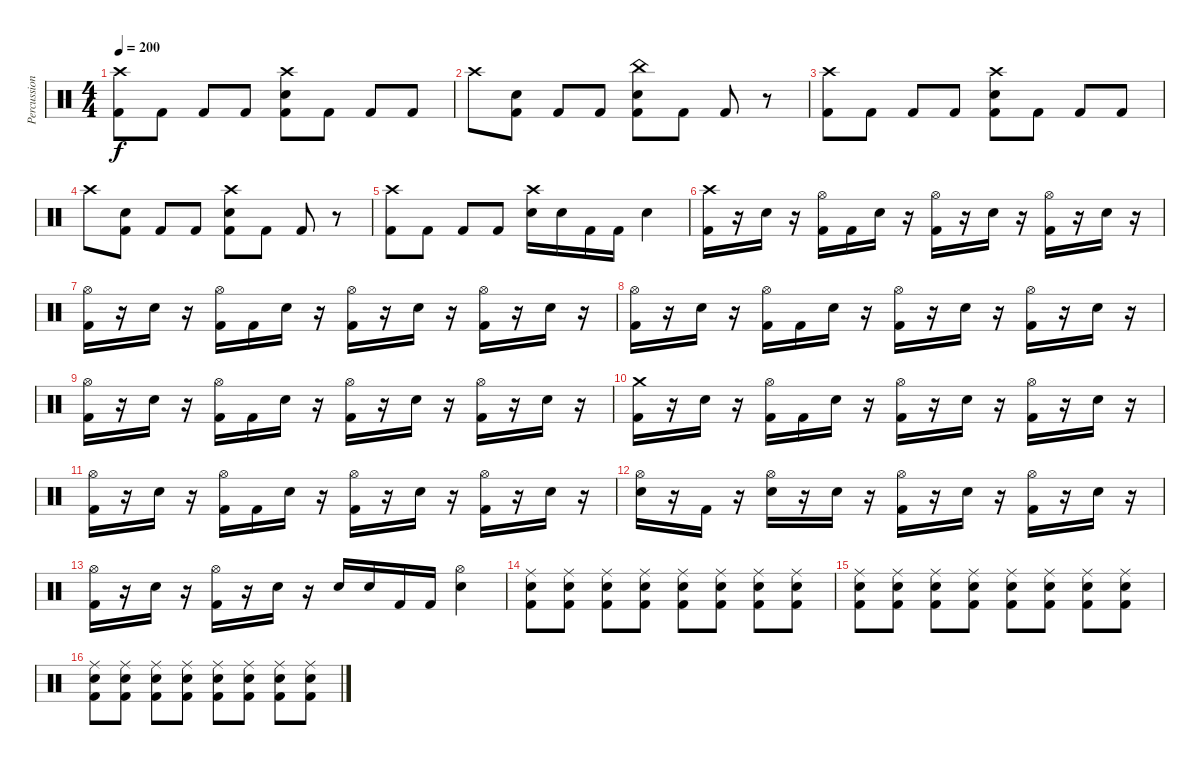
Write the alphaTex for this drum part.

\track ("Percussion" "Percussion") {instrument percussion}
\staff {score}
\articulation defaults
\ts (4 4)
\tempo 200
\clef neutral
\ks c
("Crash high (hit)" "Kick (hit) 2").8{dy f} "Kick (hit) 2".8 "Kick (hit) 2".8 "Kick (hit) 2".8 ("Crash high (hit)" "Electric Snare (hit)" "Kick (hit) 2").8 "Kick (hit) 2".8 "Kick (hit) 2".8 "Kick (hit) 2".8 |
"Crash high (hit)".8 ("Electric Snare (hit)" "Kick (hit) 2").8 "Kick (hit) 2".8 "Kick (hit) 2".8 ("China (hit)" "Electric Snare (hit)" "Kick (hit) 2").8 "Kick (hit) 2".8 "Kick (hit) 2".8 r.8 |
("Crash high (hit)" "Kick (hit) 2").8 "Kick (hit) 2".8 "Kick (hit) 2".8 "Kick (hit) 2".8 ("Crash high (hit)" "Electric Snare (hit)" "Kick (hit) 2").8 "Kick (hit) 2".8 "Kick (hit) 2".8 "Kick (hit) 2".8 |
"Crash high (hit)".8 ("Electric Snare (hit)" "Kick (hit) 2").8 "Kick (hit) 2".8 "Kick (hit) 2".8 ("Crash high (hit)" "Electric Snare (hit)" "Kick (hit) 2").8 "Kick (hit) 2".8 "Kick (hit) 2".8 r.8 |
("Crash high (hit)" "Kick (hit) 2").8 "Kick (hit) 2".8 "Kick (hit) 2".8 "Kick (hit) 2".8 ("Crash high (hit)" "Electric Snare (hit)").16 "Electric Snare (hit)".16 "Kick (hit) 2".16 "Kick (hit) 2".16 "Electric Snare (hit)".4 |
("Crash high (hit)" "Kick (hit) 2").16 r.16 "Electric Snare (hit)".16 r.16 ("Hi-Hat (open)" "Kick (hit) 2").16 "Kick (hit) 2".16 "Electric Snare (hit)".16 r.16 ("Hi-Hat (open)" "Kick (hit) 2").16 r.16 "Electric Snare (hit)".16 r.16 ("Hi-Hat (open)" "Kick (hit) 2").16 r.16 "Electric Snare (hit)".16 r.16 |
("Hi-Hat (open)" "Kick (hit) 2").16 r.16 "Electric Snare (hit)".16 r.16 ("Hi-Hat (open)" "Kick (hit) 2").16 "Kick (hit) 2".16 "Electric Snare (hit)".16 r.16 ("Hi-Hat (open)" "Kick (hit) 2").16 r.16 "Electric Snare (hit)".16 r.16 ("Hi-Hat (open)" "Kick (hit) 2").16 r.16 "Electric Snare (hit)".16 r.16 |
("Hi-Hat (open)" "Kick (hit) 2").16 r.16 "Electric Snare (hit)".16 r.16 ("Hi-Hat (open)" "Kick (hit) 2").16 "Kick (hit) 2".16 "Electric Snare (hit)".16 r.16 ("Hi-Hat (open)" "Kick (hit) 2").16 r.16 "Electric Snare (hit)".16 r.16 ("Hi-Hat (open)" "Kick (hit) 2").16 r.16 "Electric Snare (hit)".16 r.16 |
("Hi-Hat (open)" "Kick (hit) 2").16 r.16 "Electric Snare (hit)".16 r.16 ("Hi-Hat (open)" "Kick (hit) 2").16 "Kick (hit) 2".16 "Electric Snare (hit)".16 r.16 ("Hi-Hat (open)" "Kick (hit) 2").16 r.16 "Electric Snare (hit)".16 r.16 ("Hi-Hat (open)" "Kick (hit) 2").16 r.16 "Electric Snare (hit)".16 r.16 |
("Crash medium (hit)" "Kick (hit) 2").16 r.16 "Electric Snare (hit)".16 r.16 ("Hi-Hat (open)" "Kick (hit) 2").16 "Kick (hit) 2".16 "Electric Snare (hit)".16 r.16 ("Hi-Hat (open)" "Kick (hit) 2").16 r.16 "Electric Snare (hit)".16 r.16 ("Hi-Hat (open)" "Kick (hit) 2").16 r.16 "Electric Snare (hit)".16 r.16 |
("Hi-Hat (open)" "Kick (hit) 2").16 r.16 "Electric Snare (hit)".16 r.16 ("Hi-Hat (open)" "Kick (hit) 2").16 "Kick (hit) 2".16 "Electric Snare (hit)".16 r.16 ("Hi-Hat (open)" "Kick (hit) 2").16 r.16 "Electric Snare (hit)".16 r.16 ("Hi-Hat (open)" "Kick (hit) 2").16 r.16 "Electric Snare (hit)".16 r.16 |
("Hi-Hat (open)" "Electric Snare (hit)").16 r.16 "Kick (hit) 2".16 r.16 ("Hi-Hat (open)" "Electric Snare (hit)").16 r.16 "Electric Snare (hit)".16 r.16 ("Hi-Hat (open)" "Kick (hit) 2").16 r.16 "Electric Snare (hit)".16 r.16 ("Hi-Hat (open)" "Kick (hit) 2").16 r.16 "Electric Snare (hit)".16 r.16 |
("Hi-Hat (open)" "Kick (hit) 2").16 r.16 "Electric Snare (hit)".16 r.16 ("Hi-Hat (open)" "Kick (hit) 2").16 r.16 "Electric Snare (hit)".16 r.16 "Electric Snare (hit)".16 "Electric Snare (hit)".16 "Kick (hit) 2".16 "Kick (hit) 2".16 ("Hi-Hat (open)" "Electric Snare (hit)").4 |
("Ride (middle)" "Electric Snare (hit)" "Kick (hit) 2").8 ("Ride (middle)" "Electric Snare (hit)" "Kick (hit) 2").8 ("Ride (middle)" "Electric Snare (hit)" "Kick (hit) 2").8 ("Ride (middle)" "Electric Snare (hit)" "Kick (hit) 2").8 ("Ride (middle)" "Electric Snare (hit)" "Kick (hit) 2").8 ("Ride (middle)" "Electric Snare (hit)" "Kick (hit) 2").8 ("Ride (middle)" "Electric Snare (hit)" "Kick (hit) 2").8 ("Ride (middle)" "Electric Snare (hit)" "Kick (hit) 2").8 |
("Ride (middle)" "Electric Snare (hit)" "Kick (hit) 2").8 ("Ride (middle)" "Electric Snare (hit)" "Kick (hit) 2").8 ("Ride (middle)" "Electric Snare (hit)" "Kick (hit) 2").8 ("Ride (middle)" "Electric Snare (hit)" "Kick (hit) 2").8 ("Ride (middle)" "Electric Snare (hit)" "Kick (hit) 2").8 ("Ride (middle)" "Electric Snare (hit)" "Kick (hit) 2").8 ("Ride (middle)" "Electric Snare (hit)" "Kick (hit) 2").8 ("Ride (middle)" "Electric Snare (hit)" "Kick (hit) 2").8 |
("Ride (middle)" "Electric Snare (hit)" "Kick (hit) 2").8 ("Ride (middle)" "Electric Snare (hit)" "Kick (hit) 2").8 ("Ride (middle)" "Electric Snare (hit)" "Kick (hit) 2").8 ("Ride (middle)" "Electric Snare (hit)" "Kick (hit) 2").8 ("Ride (middle)" "Electric Snare (hit)" "Kick (hit) 2").8 ("Ride (middle)" "Electric Snare (hit)" "Kick (hit) 2").8 ("Ride (middle)" "Electric Snare (hit)" "Kick (hit) 2").8 ("Ride (middle)" "Electric Snare (hit)" "Kick (hit) 2").8
